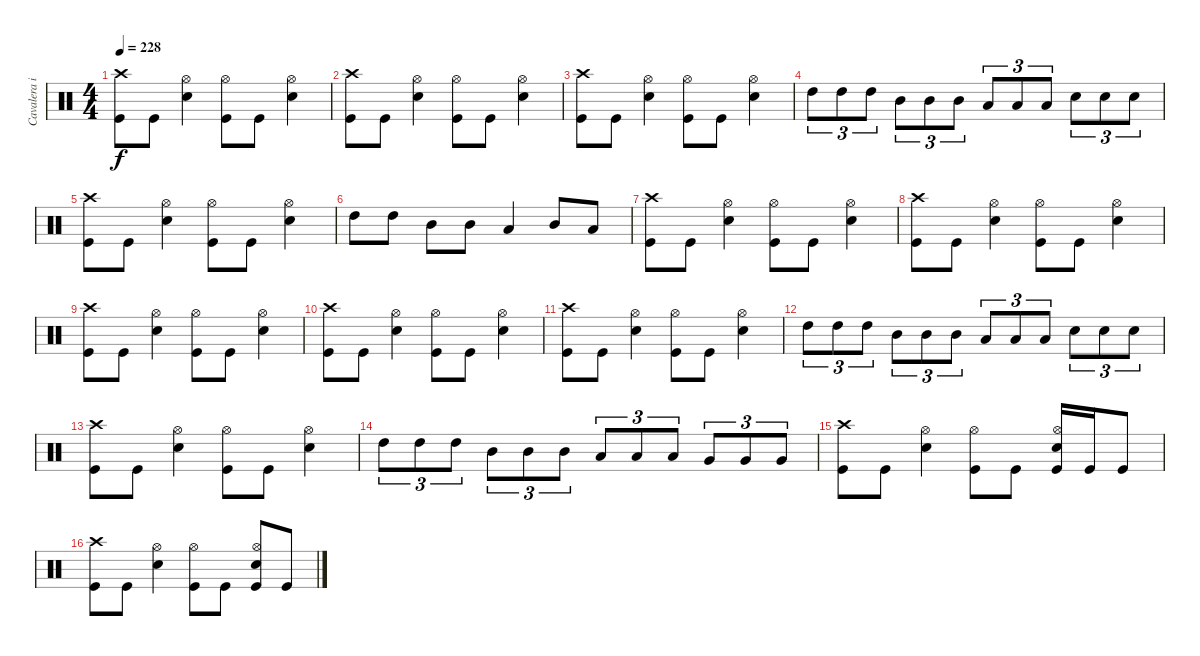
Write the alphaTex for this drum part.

\track ("Cavalera igor" "Cavalera i") {instrument percussion}
\staff {score}
\articulation defaults
\ts (4 4)
\tempo 228
\clef neutral
\ks c
("Crash high (hit)" "Kick (hit)").8{dy f} "Kick (hit)".8 ("Hi-Hat (open)" "Electric Snare (hit)").4 ("Hi-Hat (open)" "Kick (hit)").8 "Kick (hit)".8 ("Hi-Hat (open)" "Electric Snare (hit)").4 |
("Crash high (hit)" "Kick (hit)").8 "Kick (hit)".8 ("Hi-Hat (open)" "Electric Snare (hit)").4 ("Hi-Hat (open)" "Kick (hit)").8 "Kick (hit)".8 ("Hi-Hat (open)" "Electric Snare (hit)").4 |
("Crash high (hit)" "Kick (hit)").8 "Kick (hit)".8 ("Hi-Hat (open)" "Electric Snare (hit)").4 ("Hi-Hat (open)" "Kick (hit)").8 "Kick (hit)".8 ("Hi-Hat (open)" "Electric Snare (hit)").4 |
"High Tom (hit)".8{tu (3 2)} "High Tom (hit)".8{tu (3 2)} "High Tom (hit)".8{tu (3 2)} "Mid Tom (hit)".8{tu (3 2)} "Mid Tom (hit)".8{tu (3 2)} "Mid Tom (hit)".8{tu (3 2)} "Low Tom (hit)".8{tu (3 2)} "Low Tom (hit)".8{tu (3 2)} "Low Tom (hit)".8{tu (3 2)} "Electric Snare (hit)".8{tu (3 2)} "Electric Snare (hit)".8{tu (3 2)} "Electric Snare (hit)".8{tu (3 2)} |
("Crash high (hit)" "Kick (hit)").8 "Kick (hit)".8 ("Hi-Hat (open)" "Electric Snare (hit)").4 ("Hi-Hat (open)" "Kick (hit)").8 "Kick (hit)".8 ("Hi-Hat (open)" "Electric Snare (hit)").4 |
"High Tom (hit)".8 "High Tom (hit)".8 "Mid Tom (hit)".8 "Mid Tom (hit)".8 "Low Tom (hit)".4 "Mid Tom (hit)".8 "Low Tom (hit)".8 |
("Crash high (hit)" "Kick (hit)").8 "Kick (hit)".8 ("Hi-Hat (open)" "Electric Snare (hit)").4 ("Hi-Hat (open)" "Kick (hit)").8 "Kick (hit)".8 ("Hi-Hat (open)" "Electric Snare (hit)").4 |
("Crash high (hit)" "Kick (hit)").8 "Kick (hit)".8 ("Hi-Hat (open)" "Electric Snare (hit)").4 ("Hi-Hat (open)" "Kick (hit)").8 "Kick (hit)".8 ("Hi-Hat (open)" "Electric Snare (hit)").4 |
("Crash high (hit)" "Kick (hit)").8 "Kick (hit)".8 ("Hi-Hat (open)" "Electric Snare (hit)").4 ("Hi-Hat (open)" "Kick (hit)").8 "Kick (hit)".8 ("Hi-Hat (open)" "Electric Snare (hit)").4 |
("Crash high (hit)" "Kick (hit)").8 "Kick (hit)".8 ("Hi-Hat (open)" "Electric Snare (hit)").4 ("Hi-Hat (open)" "Kick (hit)").8 "Kick (hit)".8 ("Hi-Hat (open)" "Electric Snare (hit)").4 |
("Crash high (hit)" "Kick (hit)").8 "Kick (hit)".8 ("Hi-Hat (open)" "Electric Snare (hit)").4 ("Hi-Hat (open)" "Kick (hit)").8 "Kick (hit)".8 ("Hi-Hat (open)" "Electric Snare (hit)").4 |
"High Tom (hit)".8{tu (3 2)} "High Tom (hit)".8{tu (3 2)} "High Tom (hit)".8{tu (3 2)} "Mid Tom (hit)".8{tu (3 2)} "Mid Tom (hit)".8{tu (3 2)} "Mid Tom (hit)".8{tu (3 2)} "Low Tom (hit)".8{tu (3 2)} "Low Tom (hit)".8{tu (3 2)} "Low Tom (hit)".8{tu (3 2)} "Electric Snare (hit)".8{tu (3 2)} "Electric Snare (hit)".8{tu (3 2)} "Electric Snare (hit)".8{tu (3 2)} |
("Crash high (hit)" "Kick (hit)").8 "Kick (hit)".8 ("Hi-Hat (open)" "Electric Snare (hit)").4 ("Hi-Hat (open)" "Kick (hit)").8 "Kick (hit)".8 ("Hi-Hat (open)" "Electric Snare (hit)").4 |
"High Tom (hit)".8{tu (3 2)} "High Tom (hit)".8{tu (3 2)} "High Tom (hit)".8{tu (3 2)} "Mid Tom (hit)".8{tu (3 2)} "Mid Tom (hit)".8{tu (3 2)} "Mid Tom (hit)".8{tu (3 2)} "Low Tom (hit)".8{tu (3 2)} "Low Tom (hit)".8{tu (3 2)} "Low Tom (hit)".8{tu (3 2)} "Very Low Tom (hit)".8{tu (3 2)} "Very Low Tom (hit)".8{tu (3 2)} "Very Low Tom (hit)".8{tu (3 2)} |
("Crash high (hit)" "Kick (hit)").8 "Kick (hit)".8 ("Hi-Hat (open)" "Electric Snare (hit)").4 ("Hi-Hat (open)" "Kick (hit)").8 "Kick (hit)".8 ("Hi-Hat (open)" "Electric Snare (hit)" "Kick (hit)").16 "Kick (hit)".16 "Kick (hit)".8 |
("Crash high (hit)" "Kick (hit)").8 "Kick (hit)".8 ("Hi-Hat (open)" "Electric Snare (hit)").4 ("Hi-Hat (open)" "Kick (hit)").8 "Kick (hit)".8 ("Hi-Hat (open)" "Electric Snare (hit)" "Kick (hit)").8 "Kick (hit)".8
